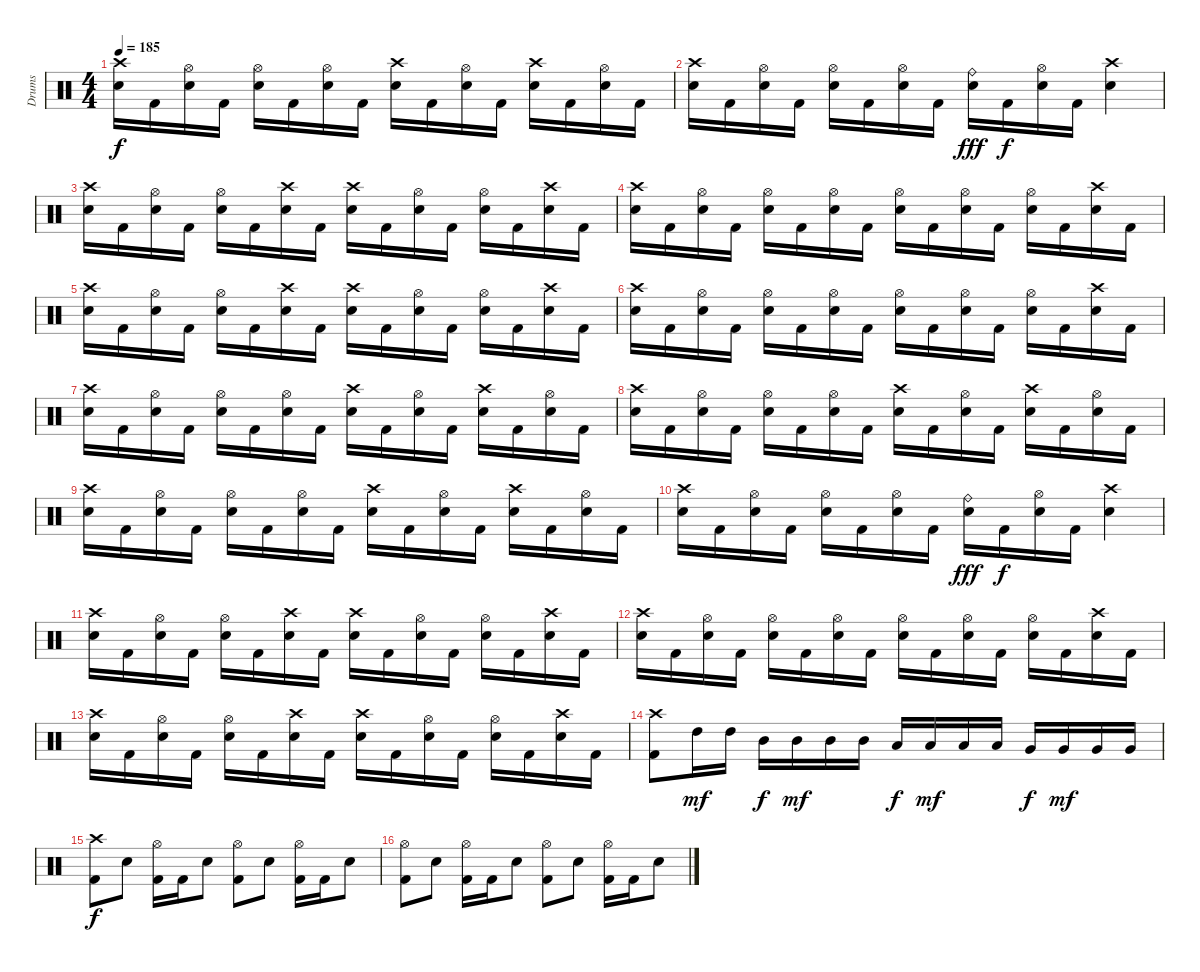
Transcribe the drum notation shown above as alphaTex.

\track ("Drums" "Drums") {instrument percussion}
\staff {score}
\articulation defaults
\ts (4 4)
\tempo 185
\clef neutral
\ks c
("Crash high (hit)" "Electric Snare (hit)").16{dy f} "Kick (hit) 2".16 ("Hi-Hat (open)" "Electric Snare (hit)").16 "Kick (hit) 2".16 ("Hi-Hat (open)" "Electric Snare (hit)").16 "Kick (hit) 2".16 ("Hi-Hat (open)" "Electric Snare (hit)").16 "Kick (hit) 2".16 ("Crash high (hit)" "Electric Snare (hit)").16 "Kick (hit) 2".16 ("Hi-Hat (open)" "Electric Snare (hit)").16 "Kick (hit) 2".16 ("Crash high (hit)" "Electric Snare (hit)").16 "Kick (hit) 2".16 ("Hi-Hat (open)" "Electric Snare (hit)").16 "Kick (hit) 2".16 |
("Crash high (hit)" "Electric Snare (hit)").16 "Kick (hit) 2".16 ("Hi-Hat (open)" "Electric Snare (hit)").16 "Kick (hit) 2".16 ("Hi-Hat (open)" "Electric Snare (hit)").16 "Kick (hit) 2".16 ("Hi-Hat (open)" "Electric Snare (hit)").16 "Kick (hit) 2".16 ("Ride (bell)" "Electric Snare (hit)").16{dy fff} "Kick (hit) 2".16{dy f} ("Hi-Hat (open)" "Electric Snare (hit)").16 "Kick (hit) 2".16 ("Crash high (hit)" "Electric Snare (hit)").4 |
("Crash high (hit)" "Electric Snare (hit)").16 "Kick (hit) 2".16 ("Hi-Hat (open)" "Electric Snare (hit)").16 "Kick (hit) 2".16 ("Hi-Hat (open)" "Electric Snare (hit)").16 "Kick (hit) 2".16 ("Crash high (hit)" "Electric Snare (hit)").16 "Kick (hit) 2".16 ("Crash high (hit)" "Electric Snare (hit)").16 "Kick (hit) 2".16 ("Hi-Hat (open)" "Electric Snare (hit)").16 "Kick (hit) 2".16 ("Hi-Hat (open)" "Electric Snare (hit)").16 "Kick (hit) 2".16 ("Crash high (hit)" "Electric Snare (hit)").16 "Kick (hit) 2".16 |
("Crash high (hit)" "Electric Snare (hit)").16 "Kick (hit) 2".16 ("Hi-Hat (open)" "Electric Snare (hit)").16 "Kick (hit) 2".16 ("Hi-Hat (open)" "Electric Snare (hit)").16 "Kick (hit) 2".16 ("Hi-Hat (open)" "Electric Snare (hit)").16 "Kick (hit) 2".16 ("Hi-Hat (open)" "Electric Snare (hit)").16 "Kick (hit) 2".16 ("Hi-Hat (open)" "Electric Snare (hit)").16 "Kick (hit) 2".16 ("Hi-Hat (open)" "Electric Snare (hit)").16 "Kick (hit) 2".16 ("Crash high (hit)" "Electric Snare (hit)").16 "Kick (hit) 2".16 |
("Crash high (hit)" "Electric Snare (hit)").16 "Kick (hit) 2".16 ("Hi-Hat (open)" "Electric Snare (hit)").16 "Kick (hit) 2".16 ("Hi-Hat (open)" "Electric Snare (hit)").16 "Kick (hit) 2".16 ("Crash high (hit)" "Electric Snare (hit)").16 "Kick (hit) 2".16 ("Crash high (hit)" "Electric Snare (hit)").16 "Kick (hit) 2".16 ("Hi-Hat (open)" "Electric Snare (hit)").16 "Kick (hit) 2".16 ("Hi-Hat (open)" "Electric Snare (hit)").16 "Kick (hit) 2".16 ("Crash high (hit)" "Electric Snare (hit)").16 "Kick (hit) 2".16 |
("Crash high (hit)" "Electric Snare (hit)").16 "Kick (hit) 2".16 ("Hi-Hat (open)" "Electric Snare (hit)").16 "Kick (hit) 2".16 ("Hi-Hat (open)" "Electric Snare (hit)").16 "Kick (hit) 2".16 ("Hi-Hat (open)" "Electric Snare (hit)").16 "Kick (hit) 2".16 ("Hi-Hat (open)" "Electric Snare (hit)").16 "Kick (hit) 2".16 ("Hi-Hat (open)" "Electric Snare (hit)").16 "Kick (hit) 2".16 ("Hi-Hat (open)" "Electric Snare (hit)").16 "Kick (hit) 2".16 ("Crash high (hit)" "Electric Snare (hit)").16 "Kick (hit) 2".16 |
("Crash high (hit)" "Electric Snare (hit)").16 "Kick (hit) 2".16 ("Hi-Hat (open)" "Electric Snare (hit)").16 "Kick (hit) 2".16 ("Hi-Hat (open)" "Electric Snare (hit)").16 "Kick (hit) 2".16 ("Hi-Hat (open)" "Electric Snare (hit)").16 "Kick (hit) 2".16 ("Crash high (hit)" "Electric Snare (hit)").16 "Kick (hit) 2".16 ("Hi-Hat (open)" "Electric Snare (hit)").16 "Kick (hit) 2".16 ("Crash high (hit)" "Electric Snare (hit)").16 "Kick (hit) 2".16 ("Hi-Hat (open)" "Electric Snare (hit)").16 "Kick (hit) 2".16 |
("Crash high (hit)" "Electric Snare (hit)").16 "Kick (hit) 2".16 ("Hi-Hat (open)" "Electric Snare (hit)").16 "Kick (hit) 2".16 ("Hi-Hat (open)" "Electric Snare (hit)").16 "Kick (hit) 2".16 ("Hi-Hat (open)" "Electric Snare (hit)").16 "Kick (hit) 2".16 ("Crash high (hit)" "Electric Snare (hit)").16 "Kick (hit) 2".16 ("Hi-Hat (open)" "Electric Snare (hit)").16 "Kick (hit) 2".16 ("Crash high (hit)" "Electric Snare (hit)").16 "Kick (hit) 2".16 ("Hi-Hat (open)" "Electric Snare (hit)").16 "Kick (hit) 2".16 |
("Crash high (hit)" "Electric Snare (hit)").16 "Kick (hit) 2".16 ("Hi-Hat (open)" "Electric Snare (hit)").16 "Kick (hit) 2".16 ("Hi-Hat (open)" "Electric Snare (hit)").16 "Kick (hit) 2".16 ("Hi-Hat (open)" "Electric Snare (hit)").16 "Kick (hit) 2".16 ("Crash high (hit)" "Electric Snare (hit)").16 "Kick (hit) 2".16 ("Hi-Hat (open)" "Electric Snare (hit)").16 "Kick (hit) 2".16 ("Crash high (hit)" "Electric Snare (hit)").16 "Kick (hit) 2".16 ("Hi-Hat (open)" "Electric Snare (hit)").16 "Kick (hit) 2".16 |
("Crash high (hit)" "Electric Snare (hit)").16 "Kick (hit) 2".16 ("Hi-Hat (open)" "Electric Snare (hit)").16 "Kick (hit) 2".16 ("Hi-Hat (open)" "Electric Snare (hit)").16 "Kick (hit) 2".16 ("Hi-Hat (open)" "Electric Snare (hit)").16 "Kick (hit) 2".16 ("Ride (bell)" "Electric Snare (hit)").16{dy fff} "Kick (hit) 2".16{dy f} ("Hi-Hat (open)" "Electric Snare (hit)").16 "Kick (hit) 2".16 ("Crash high (hit)" "Electric Snare (hit)").4 |
("Crash high (hit)" "Electric Snare (hit)").16 "Kick (hit) 2".16 ("Hi-Hat (open)" "Electric Snare (hit)").16 "Kick (hit) 2".16 ("Hi-Hat (open)" "Electric Snare (hit)").16 "Kick (hit) 2".16 ("Crash high (hit)" "Electric Snare (hit)").16 "Kick (hit) 2".16 ("Crash high (hit)" "Electric Snare (hit)").16 "Kick (hit) 2".16 ("Hi-Hat (open)" "Electric Snare (hit)").16 "Kick (hit) 2".16 ("Hi-Hat (open)" "Electric Snare (hit)").16 "Kick (hit) 2".16 ("Crash high (hit)" "Electric Snare (hit)").16 "Kick (hit) 2".16 |
("Crash high (hit)" "Electric Snare (hit)").16 "Kick (hit) 2".16 ("Hi-Hat (open)" "Electric Snare (hit)").16 "Kick (hit) 2".16 ("Hi-Hat (open)" "Electric Snare (hit)").16 "Kick (hit) 2".16 ("Hi-Hat (open)" "Electric Snare (hit)").16 "Kick (hit) 2".16 ("Hi-Hat (open)" "Electric Snare (hit)").16 "Kick (hit) 2".16 ("Hi-Hat (open)" "Electric Snare (hit)").16 "Kick (hit) 2".16 ("Hi-Hat (open)" "Electric Snare (hit)").16 "Kick (hit) 2".16 ("Crash high (hit)" "Electric Snare (hit)").16 "Kick (hit) 2".16 |
("Crash high (hit)" "Electric Snare (hit)").16 "Kick (hit) 2".16 ("Hi-Hat (open)" "Electric Snare (hit)").16 "Kick (hit) 2".16 ("Hi-Hat (open)" "Electric Snare (hit)").16 "Kick (hit) 2".16 ("Crash high (hit)" "Electric Snare (hit)").16 "Kick (hit) 2".16 ("Crash high (hit)" "Electric Snare (hit)").16 "Kick (hit) 2".16 ("Hi-Hat (open)" "Electric Snare (hit)").16 "Kick (hit) 2".16 ("Hi-Hat (open)" "Electric Snare (hit)").16 "Kick (hit) 2".16 ("Crash high (hit)" "Electric Snare (hit)").16 "Kick (hit) 2".16 |
("Crash high (hit)" "Kick (hit) 2").8 "High Tom (hit)".16{dy mf} "High Tom (hit)".16 "Mid Tom (hit)".16{dy f} "Mid Tom (hit)".16{dy mf} "Mid Tom (hit)".16 "Mid Tom (hit)".16 "Low Tom (hit)".16{dy f} "Low Tom (hit)".16{dy mf} "Low Tom (hit)".16 "Low Tom (hit)".16 "Very Low Tom (hit)".16{dy f} "Very Low Tom (hit)".16{dy mf} "Very Low Tom (hit)".16 "Very Low Tom (hit)".16 |
("Crash high (hit)" "Kick (hit) 2").8{dy f} "Electric Snare (hit)".8 ("Hi-Hat (open)" "Kick (hit) 2").16 "Kick (hit) 2".16 "Electric Snare (hit)".8 ("Hi-Hat (open)" "Kick (hit) 2").8 "Electric Snare (hit)".8 ("Hi-Hat (open)" "Kick (hit) 2").16 "Kick (hit) 2".16 "Electric Snare (hit)".8 |
("Hi-Hat (open)" "Kick (hit) 2").8 "Electric Snare (hit)".8 ("Hi-Hat (open)" "Kick (hit) 2").16 "Kick (hit) 2".16 "Electric Snare (hit)".8 ("Hi-Hat (open)" "Kick (hit) 2").8 "Electric Snare (hit)".8 ("Hi-Hat (open)" "Kick (hit) 2").16 "Kick (hit) 2".16 "Electric Snare (hit)".8
